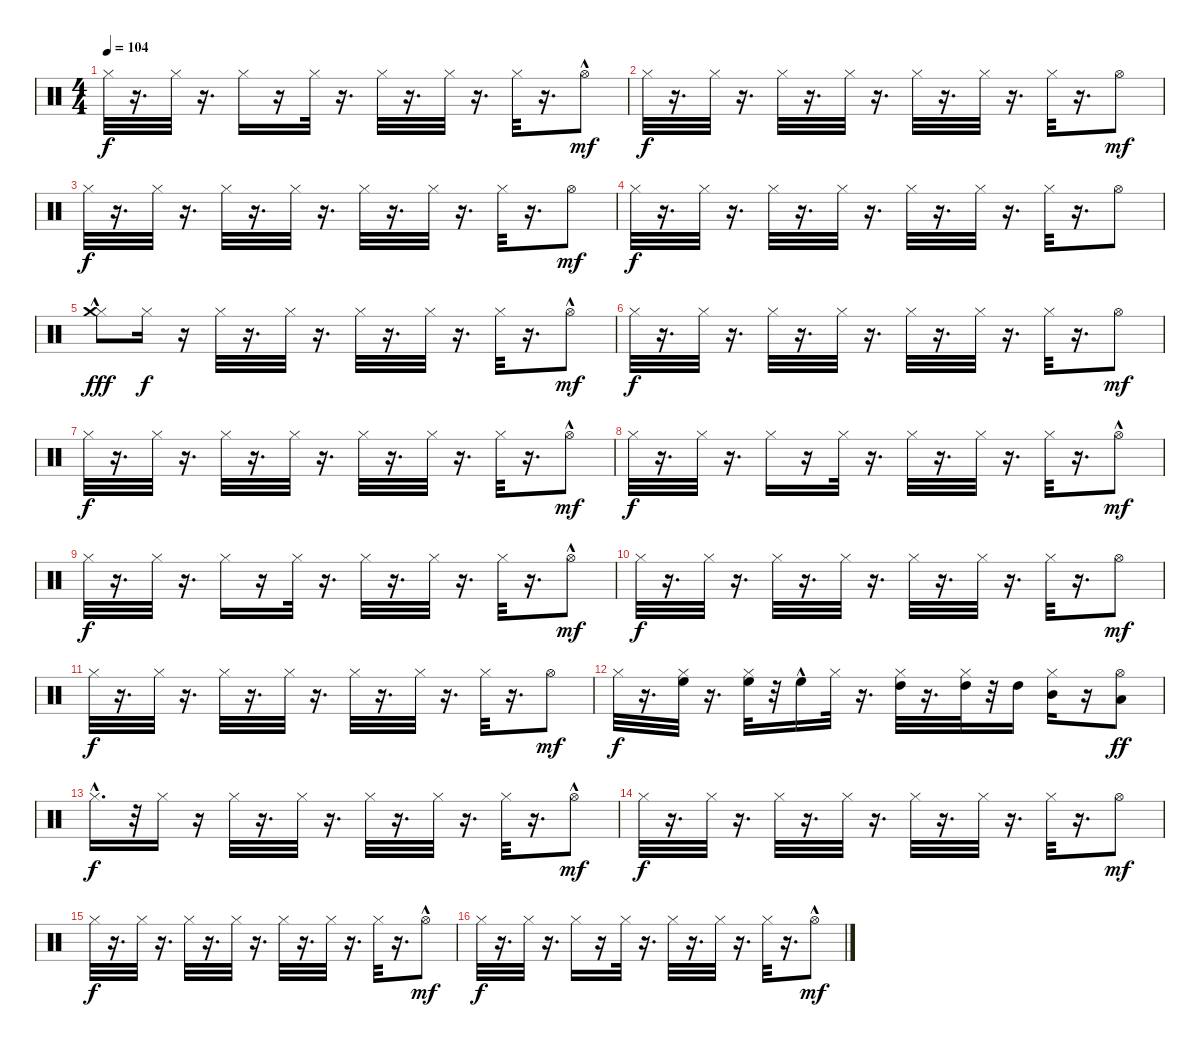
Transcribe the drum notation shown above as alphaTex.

\track "" {instrument percussion}
\staff {score}
\articulation defaults
\ts (4 4)
\tempo 104
\clef neutral
\ks c "Hi-Hat (closed)".32{dy f}
r.16{d} "Hi-Hat (closed)".32 r.16{d} "Hi-Hat (closed)".16 r.16 "Hi-Hat (closed)".32 r.16{d} "Hi-Hat (closed)".32 r.16{d} "Hi-Hat (closed)".32 r.16{d} "Hi-Hat (closed)".32 r.16{d} "Hi-Hat (open)"{hac}.8{dy mf} |
"Hi-Hat (closed)".32{dy f} r.16{d} "Hi-Hat (closed)".32 r.16{d} "Hi-Hat (closed)".32 r.16{d} "Hi-Hat (closed)".32 r.16{d} "Hi-Hat (closed)".32 r.16{d} "Hi-Hat (closed)".32 r.16{d} "Hi-Hat (closed)".32 r.16{d} "Hi-Hat (open)".8{dy mf} |
"Hi-Hat (closed)".32{dy f} r.16{d} "Hi-Hat (closed)".32 r.16{d} "Hi-Hat (closed)".32 r.16{d} "Hi-Hat (closed)".32 r.16{d} "Hi-Hat (closed)".32 r.16{d} "Hi-Hat (closed)".32 r.16{d} "Hi-Hat (closed)".32 r.16{d} "Hi-Hat (open)".8{dy mf} |
"Hi-Hat (closed)".32{dy f} r.16{d} "Hi-Hat (closed)".32 r.16{d} "Hi-Hat (closed)".32 r.16{d} "Hi-Hat (closed)".32 r.16{d} "Hi-Hat (closed)".32 r.16{d} "Hi-Hat (closed)".32 r.16{d} "Hi-Hat (closed)".32 r.16{d} "Hi-Hat (open)".8 |
("Hi-Hat (closed)"{hac} "Crash medium (hit)").8{dy fff} "Hi-Hat (closed)".16{dy f} r.16 "Hi-Hat (closed)".32 r.16{d} "Hi-Hat (closed)".32 r.16{d} "Hi-Hat (closed)".32 r.16{d} "Hi-Hat (closed)".32 r.16{d} "Hi-Hat (closed)".32 r.16{d} "Hi-Hat (open)"{hac}.8{dy mf} |
"Hi-Hat (closed)".32{dy f} r.16{d} "Hi-Hat (closed)".32 r.16{d} "Hi-Hat (closed)".32 r.16{d} "Hi-Hat (closed)".32 r.16{d} "Hi-Hat (closed)".32 r.16{d} "Hi-Hat (closed)".32 r.16{d} "Hi-Hat (closed)".32 r.16{d} "Hi-Hat (open)".8{dy mf} |
"Hi-Hat (closed)".32{dy f} r.16{d} "Hi-Hat (closed)".32 r.16{d} "Hi-Hat (closed)".32 r.16{d} "Hi-Hat (closed)".32 r.16{d} "Hi-Hat (closed)".32 r.16{d} "Hi-Hat (closed)".32 r.16{d} "Hi-Hat (closed)".32 r.16{d} "Hi-Hat (open)"{hac}.8{dy mf} |
"Hi-Hat (closed)".32{dy f} r.16{d} "Hi-Hat (closed)".32 r.16{d} "Hi-Hat (closed)".16 r.16 "Hi-Hat (closed)".32 r.16{d} "Hi-Hat (closed)".32 r.16{d} "Hi-Hat (closed)".32 r.16{d} "Hi-Hat (closed)".32 r.16{d} "Hi-Hat (open)"{hac}.8{dy mf} |
"Hi-Hat (closed)".32{dy f} r.16{d} "Hi-Hat (closed)".32 r.16{d} "Hi-Hat (closed)".16 r.16 "Hi-Hat (closed)".32 r.16{d} "Hi-Hat (closed)".32 r.16{d} "Hi-Hat (closed)".32 r.16{d} "Hi-Hat (closed)".32 r.16{d} "Hi-Hat (open)"{hac}.8{dy mf} |
"Hi-Hat (closed)".32{dy f} r.16{d} "Hi-Hat (closed)".32 r.16{d} "Hi-Hat (closed)".32 r.16{d} "Hi-Hat (closed)".32 r.16{d} "Hi-Hat (closed)".32 r.16{d} "Hi-Hat (closed)".32 r.16{d} "Hi-Hat (closed)".32 r.16{d} "Hi-Hat (open)".8{dy mf} |
"Hi-Hat (closed)".32{dy f} r.16{d} "Hi-Hat (closed)".32 r.16{d} "Hi-Hat (closed)".32 r.16{d} "Hi-Hat (closed)".32 r.16{d} "Hi-Hat (closed)".32 r.16{d} "Hi-Hat (closed)".32 r.16{d} "Hi-Hat (closed)".32 r.16{d} "Hi-Hat (open)".8{dy mf} |
"Hi-Hat (closed)".32{dy f} r.16{d} ("High Floor Tom (hit)" "Hi-Hat (closed)").32 r.16{d} ("High Floor Tom (hit)" "Hi-Hat (closed)").32 r.32 "High Floor Tom (hit)"{hac}.16 "Hi-Hat (closed)".32 r.16{d} ("High Tom (hit)" "Hi-Hat (closed)").32 r.16{d} ("High Tom (hit)" "Hi-Hat (closed)").32 r.32 "High Tom (hit)".16 ("Mid Tom (hit)" "Hi-Hat (closed)").16 r.16 ("Low Tom (hit)" "Hi-Hat (open)").8{dy ff} |
"Hi-Hat (closed)"{hac}.16{d dy f} r.32 "Hi-Hat (closed)".16 r.16 "Hi-Hat (closed)".32 r.16{d} "Hi-Hat (closed)".32 r.16{d} "Hi-Hat (closed)".32 r.16{d} "Hi-Hat (closed)".32 r.16{d} "Hi-Hat (closed)".32 r.16{d} "Hi-Hat (open)"{hac}.8{dy mf} |
"Hi-Hat (closed)".32{dy f} r.16{d} "Hi-Hat (closed)".32 r.16{d} "Hi-Hat (closed)".32 r.16{d} "Hi-Hat (closed)".32 r.16{d} "Hi-Hat (closed)".32 r.16{d} "Hi-Hat (closed)".32 r.16{d} "Hi-Hat (closed)".32 r.16{d} "Hi-Hat (open)".8{dy mf} |
"Hi-Hat (closed)".32{dy f} r.16{d} "Hi-Hat (closed)".32 r.16{d} "Hi-Hat (closed)".32 r.16{d} "Hi-Hat (closed)".32 r.16{d} "Hi-Hat (closed)".32 r.16{d} "Hi-Hat (closed)".32 r.16{d} "Hi-Hat (closed)".32 r.16{d} "Hi-Hat (open)"{hac}.8{dy mf} |
"Hi-Hat (closed)".32{dy f} r.16{d} "Hi-Hat (closed)".32 r.16{d} "Hi-Hat (closed)".16 r.16 "Hi-Hat (closed)".32 r.16{d} "Hi-Hat (closed)".32 r.16{d} "Hi-Hat (closed)".32 r.16{d} "Hi-Hat (closed)".32 r.16{d} "Hi-Hat (open)"{hac}.8{dy mf}
